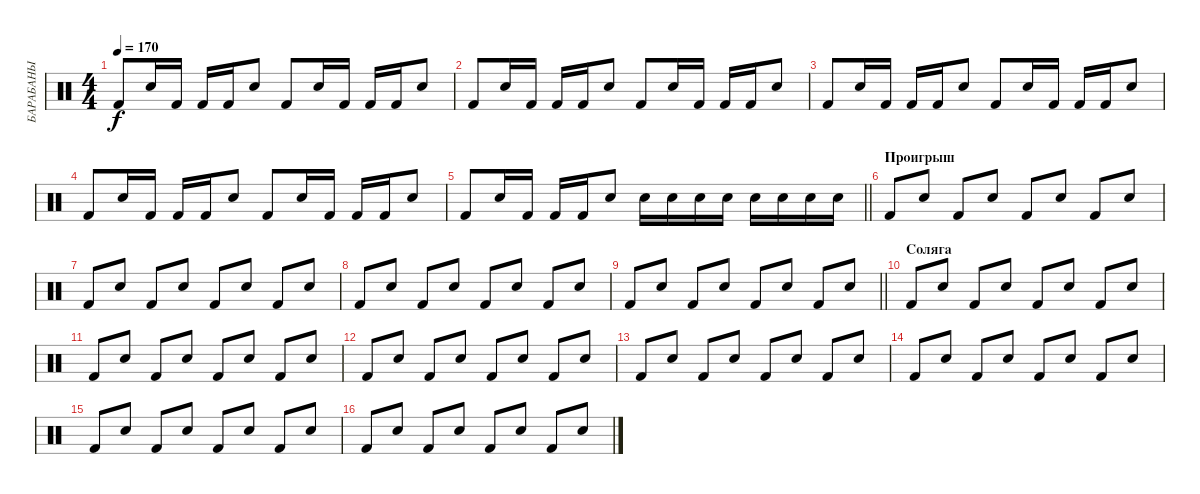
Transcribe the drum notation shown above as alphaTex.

\track ("БАРАБАНЫ" "БАРАБАНЫ") {instrument percussion}
\staff {score}
\articulation defaults
\ts (4 4)
\tempo 170
\clef neutral
\ks c "Kick (hit) 2".8{dy f} "Electric Snare (hit)".16 "Kick (hit) 2".16 "Kick (hit) 2".16 "Kick (hit) 2".16 "Electric Snare (hit)".8 "Kick (hit) 2".8 "Electric Snare (hit)".16 "Kick (hit) 2".16 "Kick (hit) 2".16 "Kick (hit) 2".16 "Electric Snare (hit)".8
|
"Kick (hit) 2".8 "Electric Snare (hit)".16 "Kick (hit) 2".16 "Kick (hit) 2".16 "Kick (hit) 2".16 "Electric Snare (hit)".8 "Kick (hit) 2".8 "Electric Snare (hit)".16 "Kick (hit) 2".16 "Kick (hit) 2".16 "Kick (hit) 2".16 "Electric Snare (hit)".8 |
"Kick (hit) 2".8 "Electric Snare (hit)".16 "Kick (hit) 2".16 "Kick (hit) 2".16 "Kick (hit) 2".16 "Electric Snare (hit)".8 "Kick (hit) 2".8 "Electric Snare (hit)".16 "Kick (hit) 2".16 "Kick (hit) 2".16 "Kick (hit) 2".16 "Electric Snare (hit)".8 |
"Kick (hit) 2".8 "Electric Snare (hit)".16 "Kick (hit) 2".16 "Kick (hit) 2".16 "Kick (hit) 2".16 "Electric Snare (hit)".8 "Kick (hit) 2".8 "Electric Snare (hit)".16 "Kick (hit) 2".16 "Kick (hit) 2".16 "Kick (hit) 2".16 "Electric Snare (hit)".8 |
\barLineRight lightlight "Kick (hit) 2".8 "Electric Snare (hit)".16 "Kick (hit) 2".16 "Kick (hit) 2".16 "Kick (hit) 2".16 "Electric Snare (hit)".8 "Electric Snare (hit)".16 "Electric Snare (hit)".16 "Electric Snare (hit)".16 "Electric Snare (hit)".16 "Electric Snare (hit)".16 "Electric Snare (hit)".16 "Electric Snare (hit)".16 "Electric Snare (hit)".16
|
\section ("" "Проигрыш")
"Kick (hit) 2".8 "Electric Snare (hit)".8 "Kick (hit) 2".8 "Electric Snare (hit)".8 "Kick (hit) 2".8 "Electric Snare (hit)".8 "Kick (hit) 2".8 "Electric Snare (hit)".8 |
"Kick (hit) 2".8 "Electric Snare (hit)".8 "Kick (hit) 2".8 "Electric Snare (hit)".8 "Kick (hit) 2".8 "Electric Snare (hit)".8 "Kick (hit) 2".8 "Electric Snare (hit)".8 |
"Kick (hit) 2".8 "Electric Snare (hit)".8 "Kick (hit) 2".8 "Electric Snare (hit)".8 "Kick (hit) 2".8 "Electric Snare (hit)".8 "Kick (hit) 2".8 "Electric Snare (hit)".8 |
\barLineRight lightlight "Kick (hit) 2".8 "Electric Snare (hit)".8 "Kick (hit) 2".8 "Electric Snare (hit)".8 "Kick (hit) 2".8 "Electric Snare (hit)".8 "Kick (hit) 2".8 "Electric Snare (hit)".8
|
\section ("" "Соляга")
"Kick (hit) 2".8 "Electric Snare (hit)".8 "Kick (hit) 2".8 "Electric Snare (hit)".8 "Kick (hit) 2".8 "Electric Snare (hit)".8 "Kick (hit) 2".8 "Electric Snare (hit)".8 |
"Kick (hit) 2".8 "Electric Snare (hit)".8 "Kick (hit) 2".8 "Electric Snare (hit)".8 "Kick (hit) 2".8 "Electric Snare (hit)".8 "Kick (hit) 2".8 "Electric Snare (hit)".8 |
"Kick (hit) 2".8 "Electric Snare (hit)".8 "Kick (hit) 2".8 "Electric Snare (hit)".8 "Kick (hit) 2".8 "Electric Snare (hit)".8 "Kick (hit) 2".8 "Electric Snare (hit)".8 |
"Kick (hit) 2".8 "Electric Snare (hit)".8 "Kick (hit) 2".8 "Electric Snare (hit)".8 "Kick (hit) 2".8 "Electric Snare (hit)".8 "Kick (hit) 2".8 "Electric Snare (hit)".8 |
"Kick (hit) 2".8 "Electric Snare (hit)".8 "Kick (hit) 2".8 "Electric Snare (hit)".8 "Kick (hit) 2".8 "Electric Snare (hit)".8 "Kick (hit) 2".8 "Electric Snare (hit)".8 |
"Kick (hit) 2".8 "Electric Snare (hit)".8 "Kick (hit) 2".8 "Electric Snare (hit)".8 "Kick (hit) 2".8 "Electric Snare (hit)".8 "Kick (hit) 2".8 "Electric Snare (hit)".8 |
"Kick (hit) 2".8 "Electric Snare (hit)".8 "Kick (hit) 2".8 "Electric Snare (hit)".8 "Kick (hit) 2".8 "Electric Snare (hit)".8 "Kick (hit) 2".8 "Electric Snare (hit)".8
